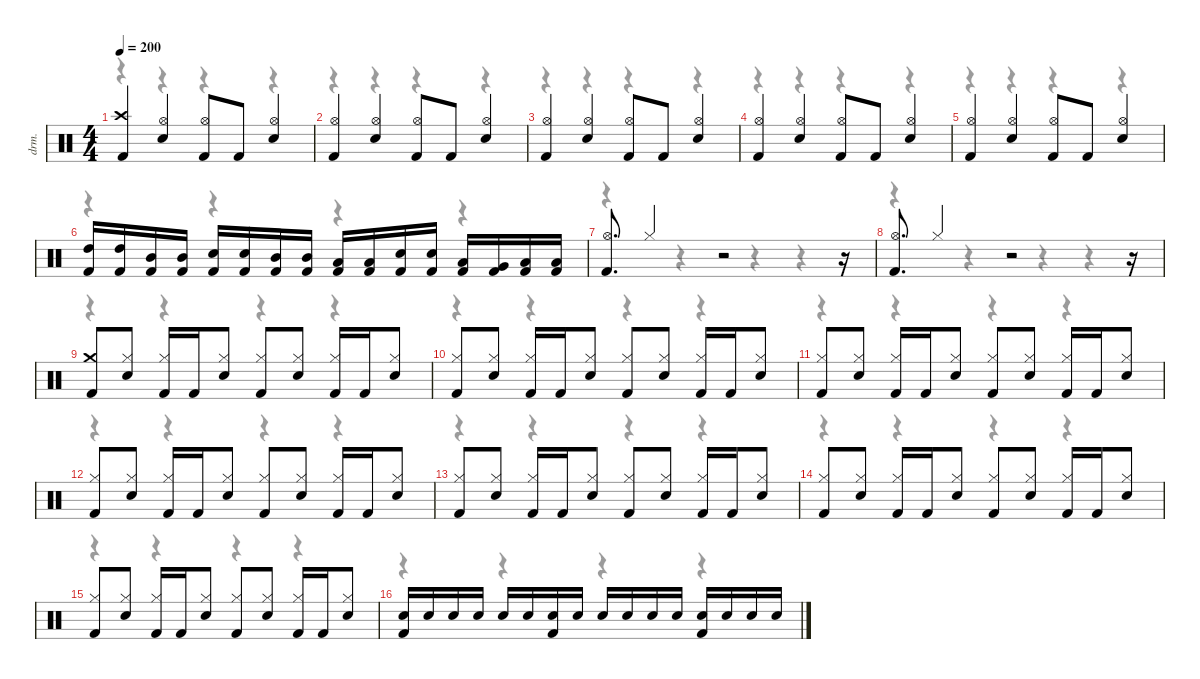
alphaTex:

\hideDynamics
\bracketExtendMode nobrackets
\otherSystemsTrackNameOrientation horizontal
\track ("Drums" "drm.") {instrument percussion}
\staff {score}
\articulation defaults
\voice
\ts (4 4)
\scale
0.992988
\tempo 200
\accidentals auto
\clef neutral
\ottava regular
\simile none
\ks c
("Kick (hit) 2" "Crash high (hit)").4{dy f} ("Snare (hit) 2" "Hi-Hat (open)").4 ("Kick (hit) 2" "Hi-Hat (open)").8 "Kick (hit) 2".8 ("Snare (hit) 2" "Hi-Hat (open)").4 |
\scale
0.992988 ("Kick (hit) 2" "Hi-Hat (open)").4 ("Snare (hit) 2" "Hi-Hat (open)").4 ("Kick (hit) 2" "Hi-Hat (open)").8 "Kick (hit) 2".8 ("Snare (hit) 2" "Hi-Hat (open)").4 |
\scale
0.973373 ("Kick (hit) 2" "Hi-Hat (open)").4 ("Snare (hit) 2" "Hi-Hat (open)").4 ("Kick (hit) 2" "Hi-Hat (open)").8 "Kick (hit) 2".8 ("Snare (hit) 2" "Hi-Hat (open)").4 |
\scale
0.973373 ("Kick (hit) 2" "Hi-Hat (open)").4 ("Snare (hit) 2" "Hi-Hat (open)").4 ("Kick (hit) 2" "Hi-Hat (open)").8 "Kick (hit) 2".8 ("Snare (hit) 2" "Hi-Hat (open)").4 |
\scale
0.973373 ("Kick (hit) 2" "Hi-Hat (open)").4 ("Snare (hit) 2" "Hi-Hat (open)").4 ("Kick (hit) 2" "Hi-Hat (open)").8 "Kick (hit) 2".8 ("Snare (hit) 2" "Hi-Hat (open)").4 |
\scale
0.973373 ("Kick (hit) 2" "High Tom (hit)").16 ("Kick (hit) 2" "High Tom (hit)").16 ("Kick (hit) 2" "Mid Tom (hit)").16 ("Kick (hit) 2" "Mid Tom (hit)").16 ("Kick (hit) 2" "Snare (hit) 2").16 ("Kick (hit) 2" "Snare (hit) 2").16 ("Kick (hit) 2" "Mid Tom (hit)").16 ("Kick (hit) 2" "Mid Tom (hit)").16 ("Kick (hit) 2" "Low Tom (hit)").16 ("Kick (hit) 2" "Low Tom (hit)").16 ("Kick (hit) 2" "Snare (hit) 2").16 ("Kick (hit) 2" "Snare (hit) 2").16 ("Kick (hit) 2" "Low Tom (hit)").16 ("Kick (hit) 2" "Very Low Tom (hit)").16 ("Kick (hit) 2" "Low Floor Tom (hit)").16 ("Kick (hit) 2" "Low Floor Tom (hit)").16 |
\scale
1.07665 ("Kick (hit) 2" "Hi-Hat (open)").8{d} "Hi-Hat (closed)".4{dy ppp} r.2 r.16 |
\scale
1.00044 ("Kick (hit) 2" "Hi-Hat (open)").8{d dy f} "Hi-Hat (closed)".4{dy ppp} r.2 r.16 |
\section ("" "")
\scale
0.988084 ("Kick (hit) 2" "Crash medium (hit)").8{dy f} ("Snare (hit) 2" "Hi-Hat (closed)").8 ("Kick (hit) 2" "Hi-Hat (closed)").16 "Kick (hit) 2".16 ("Snare (hit) 2" "Hi-Hat (closed)").8 ("Kick (hit) 2" "Hi-Hat (closed)").8 ("Snare (hit) 2" "Hi-Hat (closed)").8 ("Kick (hit) 2" "Hi-Hat (closed)").16 "Kick (hit) 2".16 ("Snare (hit) 2" "Hi-Hat (closed)").8 |
\scale
0.988084 ("Kick (hit) 2" "Hi-Hat (closed)").8 ("Snare (hit) 2" "Hi-Hat (closed)").8 ("Kick (hit) 2" "Hi-Hat (closed)").16 "Kick (hit) 2".16 ("Snare (hit) 2" "Hi-Hat (closed)").8 ("Kick (hit) 2" "Hi-Hat (closed)").8 ("Snare (hit) 2" "Hi-Hat (closed)").8 ("Kick (hit) 2" "Hi-Hat (closed)").16 "Kick (hit) 2".16 ("Snare (hit) 2" "Hi-Hat (closed)").8 |
\scale
0.973373 ("Kick (hit) 2" "Hi-Hat (closed)").8 ("Snare (hit) 2" "Hi-Hat (closed)").8 ("Kick (hit) 2" "Hi-Hat (closed)").16 "Kick (hit) 2".16 ("Snare (hit) 2" "Hi-Hat (closed)").8 ("Kick (hit) 2" "Hi-Hat (closed)").8 ("Snare (hit) 2" "Hi-Hat (closed)").8 ("Kick (hit) 2" "Hi-Hat (closed)").16 "Kick (hit) 2".16 ("Snare (hit) 2" "Hi-Hat (closed)").8 |
\scale
0.973373 ("Kick (hit) 2" "Hi-Hat (closed)").8 ("Snare (hit) 2" "Hi-Hat (closed)").8 ("Kick (hit) 2" "Hi-Hat (closed)").16 "Kick (hit) 2".16 ("Snare (hit) 2" "Hi-Hat (closed)").8 ("Kick (hit) 2" "Hi-Hat (closed)").8 ("Snare (hit) 2" "Hi-Hat (closed)").8 ("Kick (hit) 2" "Hi-Hat (closed)").16 "Kick (hit) 2".16 ("Snare (hit) 2" "Hi-Hat (closed)").8 |
\scale
1.0791 ("Kick (hit) 2" "Hi-Hat (closed)").8 ("Snare (hit) 2" "Hi-Hat (closed)").8 ("Kick (hit) 2" "Hi-Hat (closed)").16 "Kick (hit) 2".16 ("Snare (hit) 2" "Hi-Hat (closed)").8 ("Kick (hit) 2" "Hi-Hat (closed)").8 ("Snare (hit) 2" "Hi-Hat (closed)").8 ("Kick (hit) 2" "Hi-Hat (closed)").16 "Kick (hit) 2".16 ("Snare (hit) 2" "Hi-Hat (closed)").8 |
\scale
0.975825 ("Kick (hit) 2" "Hi-Hat (closed)").8 ("Snare (hit) 2" "Hi-Hat (closed)").8 ("Kick (hit) 2" "Hi-Hat (closed)").16 "Kick (hit) 2".16 ("Snare (hit) 2" "Hi-Hat (closed)").8 ("Kick (hit) 2" "Hi-Hat (closed)").8 ("Snare (hit) 2" "Hi-Hat (closed)").8 ("Kick (hit) 2" "Hi-Hat (closed)").16 "Kick (hit) 2".16 ("Snare (hit) 2" "Hi-Hat (closed)").8 |
\scale
0.990536 ("Kick (hit) 2" "Hi-Hat (closed)").8 ("Snare (hit) 2" "Hi-Hat (closed)").8 ("Kick (hit) 2" "Hi-Hat (closed)").16 "Kick (hit) 2".16 ("Snare (hit) 2" "Hi-Hat (closed)").8 ("Kick (hit) 2" "Hi-Hat (closed)").8 ("Snare (hit) 2" "Hi-Hat (closed)").8 ("Kick (hit) 2" "Hi-Hat (closed)").16 "Kick (hit) 2".16 ("Snare (hit) 2" "Hi-Hat (closed)").8 |
\scale
1.00289 ("Kick (hit) 2" "Snare (hit) 2").16{dy ff} "Snare (hit) 2".16{dy f} "Snare (hit) 2".16 "Snare (hit) 2".16 "Snare (hit) 2".16 "Snare (hit) 2".16 ("Kick (hit) 2" "Snare (hit) 2").16{dy ff} "Snare (hit) 2".16{dy f} "Snare (hit) 2".16 "Snare (hit) 2".16 "Snare (hit) 2".16 "Snare (hit) 2".16 ("Kick (hit) 2" "Snare (hit) 2").16{dy ff} "Snare (hit) 2".16{dy f} "Snare (hit) 2".16 "Snare (hit) 2".16
\voice
\clef neutral
\ottava regular
\simile none
\ks c
r.4{dy mf} r.4 r.4 r.4 |
r.4 r.4 r.4 r.4 |
r.4 r.4 r.4 r.4 |
r.4 r.4 r.4 r.4 |
r.4 r.4 r.4 r.4 |
r.4 r.4 r.4 r.4 |
r.4 r.4 r.4 r.4 |
r.4 r.4 r.4 r.4 |
r.4 r.4 r.4 r.4 |
r.4 r.4 r.4 r.4 |
r.4 r.4 r.4 r.4 |
r.4 r.4 r.4 r.4 |
r.4 r.4 r.4 r.4 |
r.4 r.4 r.4 r.4 |
r.4 r.4 r.4 r.4 |
r.4 r.4 r.4 r.4
